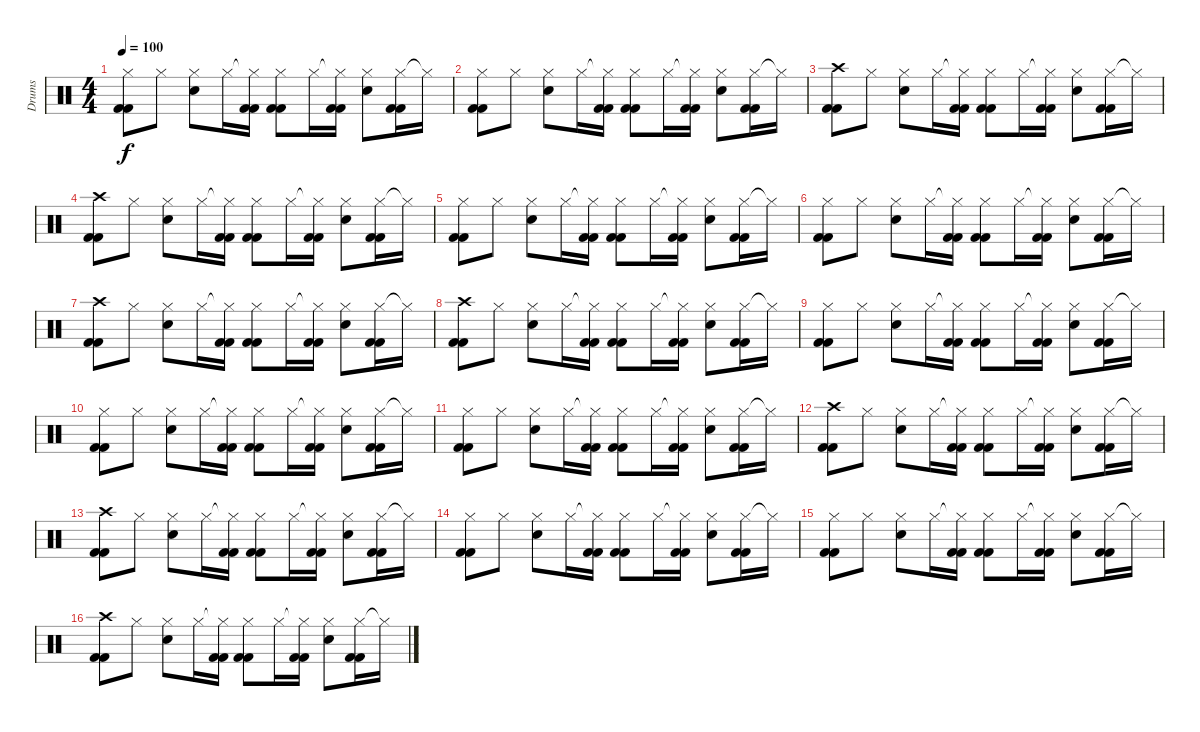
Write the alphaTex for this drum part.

\track ("Drums" "Drums") {instrument percussion}
\staff {score}
\articulation defaults
\ts (4 4)
\tempo 100
\clef neutral
\ks c
("Hi-Hat (closed)" "Kick (hit) 2" "Kick (hit) 2").8{dy f} "Hi-Hat (closed)".8 ("Hi-Hat (closed)" "Electric Snare (hit)").8 "Hi-Hat (closed)".16 ("Hi-Hat (closed)"{t} "Kick (hit) 2" "Kick (hit) 2").16 ("Hi-Hat (closed)" "Kick (hit) 2" "Kick (hit) 2").8 "Hi-Hat (closed)".16 ("Hi-Hat (closed)"{t} "Kick (hit) 2" "Kick (hit) 2").16 ("Hi-Hat (closed)" "Electric Snare (hit)").8 ("Hi-Hat (closed)" "Kick (hit) 2" "Kick (hit) 2").16 "Hi-Hat (closed)"{t}.16 |
("Hi-Hat (closed)" "Kick (hit) 2" "Kick (hit) 2").8 "Hi-Hat (closed)".8 ("Hi-Hat (closed)" "Electric Snare (hit)").8 "Hi-Hat (closed)".16 ("Hi-Hat (closed)"{t} "Kick (hit) 2" "Kick (hit) 2").16 ("Hi-Hat (closed)" "Kick (hit) 2" "Kick (hit) 2").8 "Hi-Hat (closed)".16 ("Hi-Hat (closed)"{t} "Kick (hit) 2" "Kick (hit) 2").16 ("Hi-Hat (closed)" "Electric Snare (hit)").8 ("Hi-Hat (closed)" "Kick (hit) 2" "Kick (hit) 2").16 "Hi-Hat (closed)"{t}.16 |
("Crash high (hit)" "Kick (hit) 2" "Kick (hit) 2").8 "Hi-Hat (closed)".8 ("Hi-Hat (closed)" "Electric Snare (hit)").8 "Hi-Hat (closed)".16 ("Hi-Hat (closed)"{t} "Kick (hit) 2" "Kick (hit) 2").16 ("Hi-Hat (closed)" "Kick (hit) 2" "Kick (hit) 2").8 "Hi-Hat (closed)".16 ("Hi-Hat (closed)"{t} "Kick (hit) 2" "Kick (hit) 2").16 ("Hi-Hat (closed)" "Electric Snare (hit)").8 ("Hi-Hat (closed)" "Kick (hit) 2" "Kick (hit) 2").16 "Hi-Hat (closed)"{t}.16 |
("Crash high (hit)" "Kick (hit) 2" "Kick (hit) 2").8 "Hi-Hat (closed)".8 ("Hi-Hat (closed)" "Electric Snare (hit)").8 "Hi-Hat (closed)".16 ("Hi-Hat (closed)"{t} "Kick (hit) 2" "Kick (hit) 2").16 ("Hi-Hat (closed)" "Kick (hit) 2" "Kick (hit) 2").8 "Hi-Hat (closed)".16 ("Hi-Hat (closed)"{t} "Kick (hit) 2" "Kick (hit) 2").16 ("Hi-Hat (closed)" "Electric Snare (hit)").8 ("Hi-Hat (closed)" "Kick (hit) 2" "Kick (hit) 2").16 "Hi-Hat (closed)"{t}.16 |
("Hi-Hat (closed)" "Kick (hit) 2" "Kick (hit) 2").8 "Hi-Hat (closed)".8 ("Hi-Hat (closed)" "Electric Snare (hit)").8 "Hi-Hat (closed)".16 ("Hi-Hat (closed)"{t} "Kick (hit) 2" "Kick (hit) 2").16 ("Hi-Hat (closed)" "Kick (hit) 2" "Kick (hit) 2").8 "Hi-Hat (closed)".16 ("Hi-Hat (closed)"{t} "Kick (hit) 2" "Kick (hit) 2").16 ("Hi-Hat (closed)" "Electric Snare (hit)").8 ("Hi-Hat (closed)" "Kick (hit) 2" "Kick (hit) 2").16 "Hi-Hat (closed)"{t}.16 |
("Hi-Hat (closed)" "Kick (hit) 2" "Kick (hit) 2").8 "Hi-Hat (closed)".8 ("Hi-Hat (closed)" "Electric Snare (hit)").8 "Hi-Hat (closed)".16 ("Hi-Hat (closed)"{t} "Kick (hit) 2" "Kick (hit) 2").16 ("Hi-Hat (closed)" "Kick (hit) 2" "Kick (hit) 2").8 "Hi-Hat (closed)".16 ("Hi-Hat (closed)"{t} "Kick (hit) 2" "Kick (hit) 2").16 ("Hi-Hat (closed)" "Electric Snare (hit)").8 ("Hi-Hat (closed)" "Kick (hit) 2" "Kick (hit) 2").16 "Hi-Hat (closed)"{t}.16 |
("Crash high (hit)" "Kick (hit) 2" "Kick (hit) 2").8 "Hi-Hat (closed)".8 ("Hi-Hat (closed)" "Electric Snare (hit)").8 "Hi-Hat (closed)".16 ("Hi-Hat (closed)"{t} "Kick (hit) 2" "Kick (hit) 2").16 ("Hi-Hat (closed)" "Kick (hit) 2" "Kick (hit) 2").8 "Hi-Hat (closed)".16 ("Hi-Hat (closed)"{t} "Kick (hit) 2" "Kick (hit) 2").16 ("Hi-Hat (closed)" "Electric Snare (hit)").8 ("Hi-Hat (closed)" "Kick (hit) 2" "Kick (hit) 2").16 "Hi-Hat (closed)"{t}.16 |
("Crash high (hit)" "Kick (hit) 2" "Kick (hit) 2").8 "Hi-Hat (closed)".8 ("Hi-Hat (closed)" "Electric Snare (hit)").8 "Hi-Hat (closed)".16 ("Hi-Hat (closed)"{t} "Kick (hit) 2" "Kick (hit) 2").16 ("Hi-Hat (closed)" "Kick (hit) 2" "Kick (hit) 2").8 "Hi-Hat (closed)".16 ("Hi-Hat (closed)"{t} "Kick (hit) 2" "Kick (hit) 2").16 ("Hi-Hat (closed)" "Electric Snare (hit)").8 ("Hi-Hat (closed)" "Kick (hit) 2" "Kick (hit) 2").16 "Hi-Hat (closed)"{t}.16 |
("Hi-Hat (closed)" "Kick (hit) 2" "Kick (hit) 2").8 "Hi-Hat (closed)".8 ("Hi-Hat (closed)" "Electric Snare (hit)").8 "Hi-Hat (closed)".16 ("Hi-Hat (closed)"{t} "Kick (hit) 2" "Kick (hit) 2").16 ("Hi-Hat (closed)" "Kick (hit) 2" "Kick (hit) 2").8 "Hi-Hat (closed)".16 ("Hi-Hat (closed)"{t} "Kick (hit) 2" "Kick (hit) 2").16 ("Hi-Hat (closed)" "Electric Snare (hit)").8 ("Hi-Hat (closed)" "Kick (hit) 2" "Kick (hit) 2").16 "Hi-Hat (closed)"{t}.16 |
("Hi-Hat (closed)" "Kick (hit) 2" "Kick (hit) 2").8 "Hi-Hat (closed)".8 ("Hi-Hat (closed)" "Electric Snare (hit)").8 "Hi-Hat (closed)".16 ("Hi-Hat (closed)"{t} "Kick (hit) 2" "Kick (hit) 2").16 ("Hi-Hat (closed)" "Kick (hit) 2" "Kick (hit) 2").8 "Hi-Hat (closed)".16 ("Hi-Hat (closed)"{t} "Kick (hit) 2" "Kick (hit) 2").16 ("Hi-Hat (closed)" "Electric Snare (hit)").8 ("Hi-Hat (closed)" "Kick (hit) 2" "Kick (hit) 2").16 "Hi-Hat (closed)"{t}.16 |
("Hi-Hat (closed)" "Kick (hit) 2" "Kick (hit) 2").8 "Hi-Hat (closed)".8 ("Hi-Hat (closed)" "Electric Snare (hit)").8 "Hi-Hat (closed)".16 ("Hi-Hat (closed)"{t} "Kick (hit) 2" "Kick (hit) 2").16 ("Hi-Hat (closed)" "Kick (hit) 2" "Kick (hit) 2").8 "Hi-Hat (closed)".16 ("Hi-Hat (closed)"{t} "Kick (hit) 2" "Kick (hit) 2").16 ("Hi-Hat (closed)" "Electric Snare (hit)").8 ("Hi-Hat (closed)" "Kick (hit) 2" "Kick (hit) 2").16 "Hi-Hat (closed)"{t}.16 |
("Crash high (hit)" "Kick (hit) 2" "Kick (hit) 2").8 "Hi-Hat (closed)".8 ("Hi-Hat (closed)" "Electric Snare (hit)").8 "Hi-Hat (closed)".16 ("Hi-Hat (closed)"{t} "Kick (hit) 2" "Kick (hit) 2").16 ("Hi-Hat (closed)" "Kick (hit) 2" "Kick (hit) 2").8 "Hi-Hat (closed)".16 ("Hi-Hat (closed)"{t} "Kick (hit) 2" "Kick (hit) 2").16 ("Hi-Hat (closed)" "Electric Snare (hit)").8 ("Hi-Hat (closed)" "Kick (hit) 2" "Kick (hit) 2").16 "Hi-Hat (closed)"{t}.16 |
("Crash high (hit)" "Kick (hit) 2" "Kick (hit) 2").8 "Hi-Hat (closed)".8 ("Hi-Hat (closed)" "Electric Snare (hit)").8 "Hi-Hat (closed)".16 ("Hi-Hat (closed)"{t} "Kick (hit) 2" "Kick (hit) 2").16 ("Hi-Hat (closed)" "Kick (hit) 2" "Kick (hit) 2").8 "Hi-Hat (closed)".16 ("Hi-Hat (closed)"{t} "Kick (hit) 2" "Kick (hit) 2").16 ("Hi-Hat (closed)" "Electric Snare (hit)").8 ("Hi-Hat (closed)" "Kick (hit) 2" "Kick (hit) 2").16 "Hi-Hat (closed)"{t}.16 |
("Hi-Hat (closed)" "Kick (hit) 2" "Kick (hit) 2").8 "Hi-Hat (closed)".8 ("Hi-Hat (closed)" "Electric Snare (hit)").8 "Hi-Hat (closed)".16 ("Hi-Hat (closed)"{t} "Kick (hit) 2" "Kick (hit) 2").16 ("Hi-Hat (closed)" "Kick (hit) 2" "Kick (hit) 2").8 "Hi-Hat (closed)".16 ("Hi-Hat (closed)"{t} "Kick (hit) 2" "Kick (hit) 2").16 ("Hi-Hat (closed)" "Electric Snare (hit)").8 ("Hi-Hat (closed)" "Kick (hit) 2" "Kick (hit) 2").16 "Hi-Hat (closed)"{t}.16 |
("Hi-Hat (closed)" "Kick (hit) 2" "Kick (hit) 2").8{volume 10} "Hi-Hat (closed)".8 ("Hi-Hat (closed)" "Electric Snare (hit)").8 "Hi-Hat (closed)".16 ("Hi-Hat (closed)"{t} "Kick (hit) 2" "Kick (hit) 2").16 ("Hi-Hat (closed)" "Kick (hit) 2" "Kick (hit) 2").8 "Hi-Hat (closed)".16 ("Hi-Hat (closed)"{t} "Kick (hit) 2" "Kick (hit) 2").16 ("Hi-Hat (closed)" "Electric Snare (hit)").8 ("Hi-Hat (closed)" "Kick (hit) 2" "Kick (hit) 2").16 "Hi-Hat (closed)"{t}.16 |
("Crash high (hit)" "Kick (hit) 2" "Kick (hit) 2").8{volume 7} "Hi-Hat (closed)".8 ("Hi-Hat (closed)" "Electric Snare (hit)").8 "Hi-Hat (closed)".16 ("Hi-Hat (closed)"{t} "Kick (hit) 2" "Kick (hit) 2").16 ("Hi-Hat (closed)" "Kick (hit) 2" "Kick (hit) 2").8 "Hi-Hat (closed)".16 ("Hi-Hat (closed)"{t} "Kick (hit) 2" "Kick (hit) 2").16 ("Hi-Hat (closed)" "Electric Snare (hit)").8 ("Hi-Hat (closed)" "Kick (hit) 2" "Kick (hit) 2").16 "Hi-Hat (closed)"{t}.16
